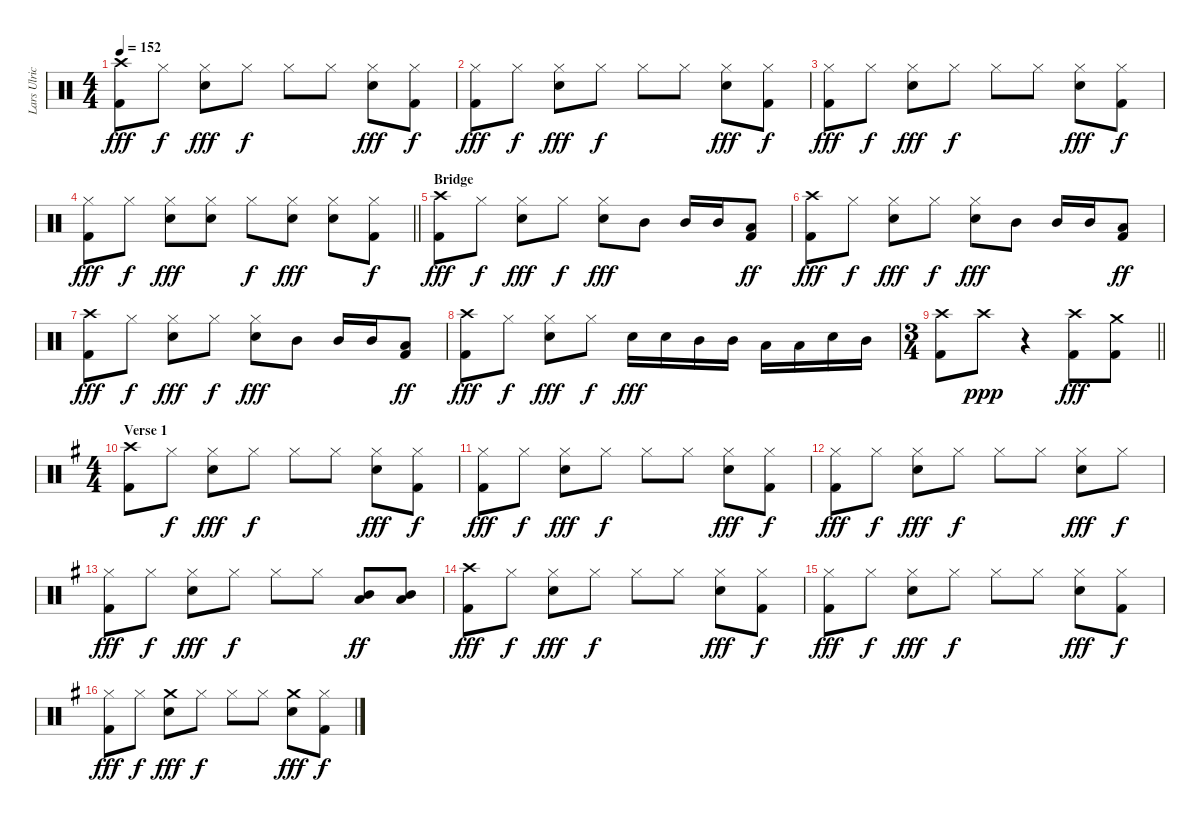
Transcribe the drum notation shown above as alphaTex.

\track ("Lars Ulrich" "Lars Ulric") {instrument percussion}
\staff {score}
\articulation defaults
\ts (4 4)
\tempo 152
\clef neutral
\ks c
("Crash high (hit)" "Kick (hit) 2").8{dy fff} "Hi-Hat (closed)".8{dy f} ("Hi-Hat (closed)" "Snare (hit) 2").8{dy fff} "Hi-Hat (closed)".8{dy f} "Hi-Hat (closed)".8 "Hi-Hat (closed)".8 ("Hi-Hat (closed)" "Snare (hit) 2").8{dy fff} ("Hi-Hat (closed)" "Kick (hit) 2").8{dy f} |
("Hi-Hat (closed)" "Kick (hit) 2").8{dy fff} "Hi-Hat (closed)".8{dy f} ("Hi-Hat (closed)" "Snare (hit) 2").8{dy fff} "Hi-Hat (closed)".8{dy f} "Hi-Hat (closed)".8 "Hi-Hat (closed)".8 ("Hi-Hat (closed)" "Snare (hit) 2").8{dy fff} ("Hi-Hat (closed)" "Kick (hit) 2").8{dy f} |
("Hi-Hat (closed)" "Kick (hit) 2").8{dy fff} "Hi-Hat (closed)".8{dy f} ("Hi-Hat (closed)" "Snare (hit) 2").8{dy fff} "Hi-Hat (closed)".8{dy f} "Hi-Hat (closed)".8 "Hi-Hat (closed)".8 ("Hi-Hat (closed)" "Snare (hit) 2").8{dy fff} ("Hi-Hat (closed)" "Kick (hit) 2").8{dy f} |
\barLineRight lightlight
("Hi-Hat (closed)" "Kick (hit) 2").8{dy fff} "Hi-Hat (closed)".8{dy f} ("Hi-Hat (closed)" "Snare (hit) 2").8{dy fff} ("Hi-Hat (closed)" "Snare (hit) 2").8 "Hi-Hat (closed)".8{dy f} ("Hi-Hat (closed)" "Snare (hit) 2").8{dy fff} ("Hi-Hat (closed)" "Snare (hit) 2").8 ("Hi-Hat (closed)" "Kick (hit) 2").8{dy f} |
\section ("" "Bridge")
("Crash high (hit)" "Kick (hit) 2").8{dy fff} "Hi-Hat (closed)".8{dy f} ("Hi-Hat (closed)" "Snare (hit) 2").8{dy fff} "Hi-Hat (closed)".8{dy f} ("Hi-Hat (closed)" "Snare (hit) 2").8{dy fff} "Mid Tom (hit)".8 "Mid Tom (hit)".16 "Mid Tom (hit)".16 ("Low Tom (hit)" "Kick (hit) 2").8{dy ff} |
("Crash high (hit)" "Kick (hit) 2").8{dy fff} "Hi-Hat (closed)".8{dy f} ("Hi-Hat (closed)" "Snare (hit) 2").8{dy fff} "Hi-Hat (closed)".8{dy f} ("Hi-Hat (closed)" "Snare (hit) 2").8{dy fff} "Mid Tom (hit)".8 "Mid Tom (hit)".16 "Mid Tom (hit)".16 ("Low Tom (hit)" "Kick (hit) 2").8{dy ff} |
("Crash high (hit)" "Kick (hit) 2").8{dy fff} "Hi-Hat (closed)".8{dy f} ("Hi-Hat (closed)" "Snare (hit) 2").8{dy fff} "Hi-Hat (closed)".8{dy f} ("Hi-Hat (closed)" "Snare (hit) 2").8{dy fff} "Mid Tom (hit)".8 "Mid Tom (hit)".16 "Mid Tom (hit)".16 ("Low Tom (hit)" "Kick (hit) 2").8{dy ff} |
("Crash high (hit)" "Kick (hit) 2").8{dy fff} "Hi-Hat (closed)".8{dy f} ("Hi-Hat (closed)" "Snare (hit) 2").8{dy fff} "Hi-Hat (closed)".8{dy f} "Snare (hit) 2".16{dy fff} "Snare (hit) 2".16 "Mid Tom (hit)".16 "Mid Tom (hit)".16 "Low Tom (hit)".16 "Low Tom (hit)".16 "Snare (hit) 2".16 "Mid Tom (hit)".16 |
\ts (3 4)
\barLineRight lightlight
("Crash high (hit)" "Kick (hit) 2").8 "Crash high (hit)".8{dy ppp volume 0} r.4 ("Crash high (hit)" "Kick (hit) 2").8{dy fff volume 13} ("Crash medium (hit)" "Kick (hit) 2").8 |
\ts (4 4)
\section ("" "Verse 1")
\ks g
("Crash high (hit)" "Kick (hit) 2").8{volume 13} "Hi-Hat (closed)".8{dy f} ("Hi-Hat (closed)" "Snare (hit) 2").8{dy fff} "Hi-Hat (closed)".8{dy f} "Hi-Hat (closed)".8 "Hi-Hat (closed)".8 ("Hi-Hat (closed)" "Snare (hit) 2").8{dy fff} ("Hi-Hat (closed)" "Kick (hit) 2").8{dy f} |
("Hi-Hat (closed)" "Kick (hit) 2").8{dy fff} "Hi-Hat (closed)".8{dy f} ("Hi-Hat (closed)" "Snare (hit) 2").8{dy fff} "Hi-Hat (closed)".8{dy f} "Hi-Hat (closed)".8 "Hi-Hat (closed)".8 ("Hi-Hat (closed)" "Snare (hit) 2").8{dy fff} ("Hi-Hat (closed)" "Kick (hit) 2").8{dy f} |
("Hi-Hat (closed)" "Kick (hit) 2").8{dy fff} "Hi-Hat (closed)".8{dy f} ("Hi-Hat (closed)" "Snare (hit) 2").8{dy fff} "Hi-Hat (closed)".8{dy f} "Hi-Hat (closed)".8 "Hi-Hat (closed)".8 ("Hi-Hat (closed)" "Snare (hit) 2").8{dy fff} "Hi-Hat (closed)".8{dy f} |
("Hi-Hat (closed)" "Kick (hit) 2").8{dy fff} "Hi-Hat (closed)".8{dy f} ("Hi-Hat (closed)" "Snare (hit) 2").8{dy fff} "Hi-Hat (closed)".8{dy f} "Hi-Hat (closed)".8 "Hi-Hat (closed)".8 ("Low Tom (hit)" "Mid Tom (hit)").8{dy ff} ("Low Tom (hit)" "Mid Tom (hit)").8 |
("Crash high (hit)" "Kick (hit) 2").8{dy fff} "Hi-Hat (closed)".8{dy f} ("Hi-Hat (closed)" "Snare (hit) 2").8{dy fff} "Hi-Hat (closed)".8{dy f} "Hi-Hat (closed)".8 "Hi-Hat (closed)".8 ("Hi-Hat (closed)" "Snare (hit) 2").8{dy fff} ("Hi-Hat (closed)" "Kick (hit) 2").8{dy f} |
("Hi-Hat (closed)" "Kick (hit) 2").8{dy fff} "Hi-Hat (closed)".8{dy f} ("Hi-Hat (closed)" "Snare (hit) 2").8{dy fff} "Hi-Hat (closed)".8{dy f} "Hi-Hat (closed)".8 "Hi-Hat (closed)".8 ("Hi-Hat (closed)" "Snare (hit) 2").8{dy fff} ("Hi-Hat (closed)" "Kick (hit) 2").8{dy f} |
("Hi-Hat (closed)" "Kick (hit) 2").8{dy fff} "Hi-Hat (closed)".8{dy f} ("Crash medium (hit)" "Snare (hit) 2").8{dy fff} "Hi-Hat (closed)".8{dy f} "Hi-Hat (closed)".8 "Hi-Hat (closed)".8 ("Crash medium (hit)" "Snare (hit) 2").8{dy fff} ("Hi-Hat (closed)" "Kick (hit) 2").8{dy f}
